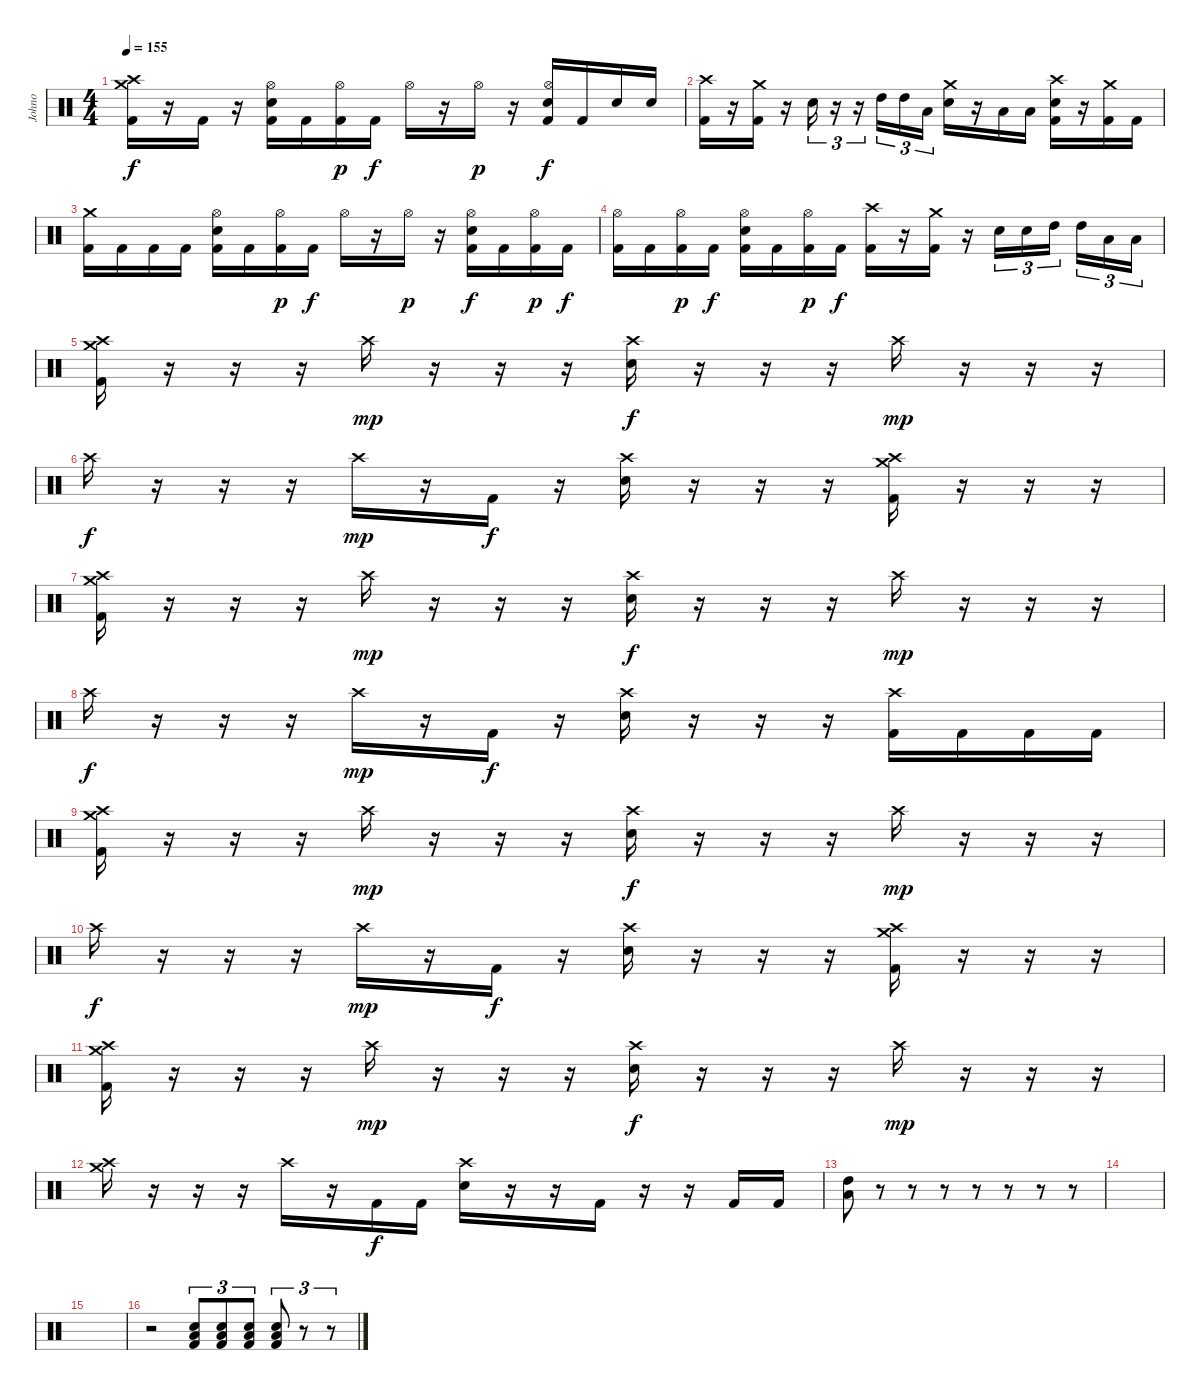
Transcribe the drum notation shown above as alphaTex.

\track ("Johno" "Johno") {instrument percussion}
\staff {score}
\articulation defaults
\ts (4 4)
\tempo 155
\clef neutral
\ks c
("Crash medium (hit)" "Crash high (hit)" "Kick (hit) 2").16{dy f} r.16 "Kick (hit) 2".16 r.16 ("Hi-Hat (open)" "Electric Snare (hit)" "Kick (hit) 2").16 "Kick (hit) 2".16 ("Hi-Hat (open)" "Kick (hit) 2").16{dy p} "Kick (hit) 2".16{dy f} "Hi-Hat (open)".16 r.16 "Hi-Hat (open)".16{dy p} r.16 ("Hi-Hat (open)" "Electric Snare (hit)" "Kick (hit) 2").16{dy f} "Kick (hit) 2".16 "Electric Snare (hit)".16 "Electric Snare (hit)".16 |
("Crash high (hit)" "Kick (hit) 2").16 r.16 ("Crash medium (hit)" "Kick (hit) 2").16 r.16 "Electric Snare (hit)".16{tu (3 2)} r.16{tu (3 2)} r.16{tu (3 2)} "High Tom (hit)".16{tu (3 2)} "High Tom (hit)".16{tu (3 2)} "Low Floor Tom (hit)".16{tu (3 2)} ("Crash medium (hit)" "Electric Snare (hit)").16 r.16 "Low Floor Tom (hit)".16 "Low Floor Tom (hit)".16 ("Crash high (hit)" "Electric Snare (hit)" "Kick (hit) 2").16 r.16 ("Crash medium (hit)" "Kick (hit) 2").16 "Kick (hit) 2".16 |
("Crash medium (hit)" "Kick (hit) 2").16 "Kick (hit) 2".16 "Kick (hit) 2".16 "Kick (hit) 2".16 ("Hi-Hat (open)" "Electric Snare (hit)" "Kick (hit) 2").16 "Kick (hit) 2".16 ("Hi-Hat (open)" "Kick (hit) 2").16{dy p} "Kick (hit) 2".16{dy f} "Hi-Hat (open)".16 r.16 "Hi-Hat (open)".16{dy p} r.16 ("Hi-Hat (open)" "Electric Snare (hit)" "Kick (hit) 2").16{dy f} "Kick (hit) 2".16 ("Hi-Hat (open)" "Kick (hit) 2").16{dy p} "Kick (hit) 2".16{dy f} |
("Hi-Hat (open)" "Kick (hit) 2").16 "Kick (hit) 2".16 ("Hi-Hat (open)" "Kick (hit) 2").16{dy p} "Kick (hit) 2".16{dy f} ("Hi-Hat (open)" "Electric Snare (hit)" "Kick (hit) 2").16 "Kick (hit) 2".16 ("Hi-Hat (open)" "Kick (hit) 2").16{dy p} "Kick (hit) 2".16{dy f} ("Crash high (hit)" "Kick (hit) 2").16 r.16 ("Crash medium (hit)" "Kick (hit) 2").16 r.16 "Electric Snare (hit)".16{tu (3 2)} "Electric Snare (hit)".16{tu (3 2)} "High Tom (hit)".16{tu (3 2) beam splitsecondary} "High Tom (hit)".16{tu (3 2)} "Low Floor Tom (hit)".16{tu (3 2)} "Low Floor Tom (hit)".16{tu (3 2)} |
("Crash medium (hit)" "Crash high (hit)" "Kick (hit) 2").16 r.16 r.16 r.16 "Crash high (hit)".16{dy mp} r.16 r.16 r.16 ("Crash high (hit)" "Electric Snare (hit)").16{dy f} r.16 r.16 r.16 "Crash high (hit)".16{dy mp} r.16 r.16 r.16 |
"Crash high (hit)".16{dy f} r.16 r.16 r.16 "Crash high (hit)".16{dy mp} r.16 "Kick (hit) 2".16{dy f} r.16 ("Crash high (hit)" "Electric Snare (hit)").16 r.16 r.16 r.16 ("Crash medium (hit)" "Crash high (hit)" "Kick (hit) 2").16 r.16 r.16 r.16 |
("Crash medium (hit)" "Crash high (hit)" "Kick (hit) 2").16 r.16 r.16 r.16 "Crash high (hit)".16{dy mp} r.16 r.16 r.16 ("Crash high (hit)" "Electric Snare (hit)").16{dy f} r.16 r.16 r.16 "Crash high (hit)".16{dy mp} r.16 r.16 r.16 |
"Crash high (hit)".16{dy f} r.16 r.16 r.16 "Crash high (hit)".16{dy mp} r.16 "Kick (hit) 2".16{dy f} r.16 ("Crash high (hit)" "Electric Snare (hit)").16 r.16 r.16 r.16 ("Crash high (hit)" "Kick (hit) 2").16 "Kick (hit) 2".16 "Kick (hit) 2".16 "Kick (hit) 2".16 |
("Crash medium (hit)" "Crash high (hit)" "Kick (hit) 2").16 r.16 r.16 r.16 "Crash high (hit)".16{dy mp} r.16 r.16 r.16 ("Crash high (hit)" "Electric Snare (hit)").16{dy f} r.16 r.16 r.16 "Crash high (hit)".16{dy mp} r.16 r.16 r.16 |
"Crash high (hit)".16{dy f} r.16 r.16 r.16 "Crash high (hit)".16{dy mp} r.16 "Kick (hit) 2".16{dy f} r.16 ("Crash high (hit)" "Electric Snare (hit)").16 r.16 r.16 r.16 ("Crash medium (hit)" "Crash high (hit)" "Kick (hit) 2").16 r.16 r.16 r.16 |
("Crash medium (hit)" "Crash high (hit)" "Kick (hit) 2").16 r.16 r.16 r.16 "Crash high (hit)".16{dy mp} r.16 r.16 r.16 ("Crash high (hit)" "Electric Snare (hit)").16{dy f} r.16 r.16 r.16 "Crash high (hit)".16{dy mp} r.16 r.16 r.16 |
("Crash medium (hit)" "Crash high (hit)").16 r.16 r.16 r.16 "Crash high (hit)".16 r.16 "Kick (hit) 2".16{dy f} "Kick (hit) 2".16 ("Crash high (hit)" "Electric Snare (hit)").16 r.16 r.16 "Kick (hit) 2".16 r.16 r.16 "Kick (hit) 2".16 "Kick (hit) 2".16 |
("High Tom (hit)" "Low Floor Tom (hit)").8 r.8 r.8 r.8 r.8 r.8 r.8 r.8 |
|
|
r.2 ("Electric Snare (hit)" "Low Floor Tom (hit)" "Kick (hit) 2").8{tu (3 2)} ("Electric Snare (hit)" "Low Floor Tom (hit)" "Kick (hit) 2").8{tu (3 2)} ("Electric Snare (hit)" "Low Floor Tom (hit)" "Kick (hit) 2").8{tu (3 2)} ("Electric Snare (hit)" "Low Floor Tom (hit)" "Kick (hit) 2").8{tu (3 2)} r.8{tu (3 2)} r.8{tu (3 2)}
